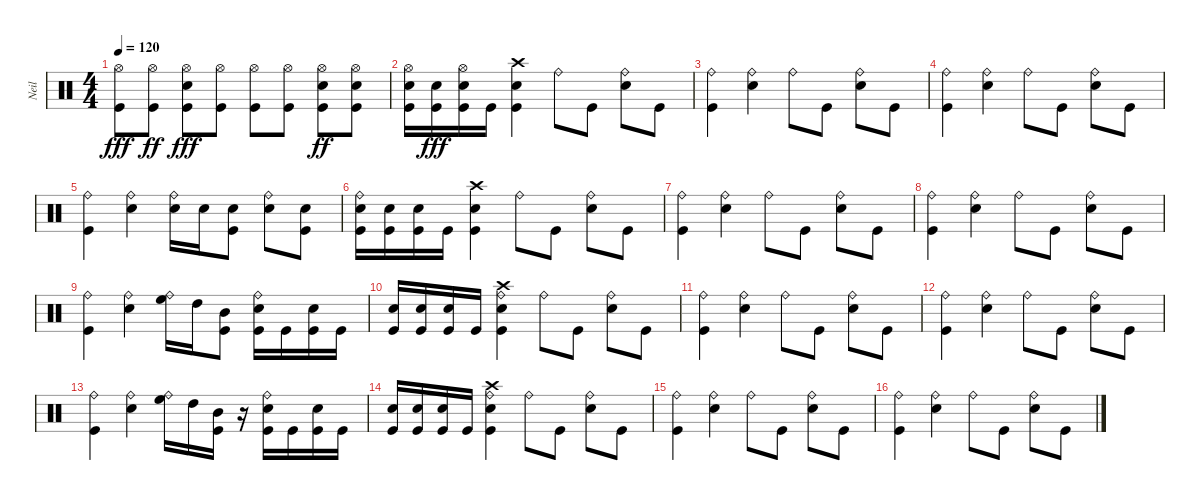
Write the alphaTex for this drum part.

\track ("Neil" "Neil") {instrument percussion}
\staff {score}
\articulation defaults
\ts (4 4)
\tempo 120
\clef neutral
\ks c
("Hi-Hat (open)" "Kick (hit)").8{dy fff} ("Kick (hit)" "Hi-Hat (open)").8{dy ff} ("Hi-Hat (open)" "Snare (hit) 2" "Kick (hit)").8{dy fff} ("Hi-Hat (open)" "Kick (hit)").8 ("Hi-Hat (open)" "Kick (hit)").8 ("Hi-Hat (open)" "Kick (hit)").8 ("Kick (hit)" "Snare (hit) 2" "Hi-Hat (open)").8{dy ff} ("Snare (hit) 2" "Kick (hit)" "Hi-Hat (open)").8 |
("Snare (hit) 2" "Kick (hit)" "Hi-Hat (open)").16 ("Kick (hit)" "Snare (hit) 2").16{dy fff} ("Hi-Hat (open)" "Kick (hit)" "Snare (hit) 2").16 "Kick (hit)".16 ("Crash high (hit)" "Snare (hit) 2" "Kick (hit)").4 "Ride (bell)".8 "Kick (hit)".8 ("Snare (hit) 2" "Ride (bell)").8 "Kick (hit)".8 |
("Kick (hit)" "Ride (bell)").4 ("Snare (hit) 2" "Ride (bell)").4 "Ride (bell)".8 "Kick (hit)".8 ("Ride (bell)" "Snare (hit) 2").8 "Kick (hit)".8 |
("Ride (bell)" "Kick (hit)").4 ("Snare (hit) 2" "Ride (bell)").4 "Ride (bell)".8 "Kick (hit)".8 ("Ride (bell)" "Snare (hit) 2").8 "Kick (hit)".8 |
("Kick (hit)" "Ride (bell)").4 ("Ride (bell)" "Snare (hit) 2").4 ("Ride (bell)" "Snare (hit) 2").16 "Snare (hit) 2".16 ("Snare (hit) 2" "Kick (hit)").8 ("Ride (bell)" "Snare (hit) 2").8 ("Kick (hit)" "Snare (hit) 2").8 |
("Kick (hit)" "Snare (hit) 2" "Ride (bell)").16 ("Snare (hit) 2" "Kick (hit)").16 ("Snare (hit) 2" "Kick (hit)").16 "Kick (hit)".16 ("Kick (hit)" "Snare (hit) 2" "Crash high (hit)").4 "Ride (bell)".8 "Kick (hit)".8 ("Snare (hit) 2" "Ride (bell)").8 "Kick (hit)".8 |
("Kick (hit)" "Ride (bell)").4 ("Snare (hit) 2" "Ride (bell)").4 "Ride (bell)".8 "Kick (hit)".8 ("Snare (hit) 2" "Ride (bell)").8 "Kick (hit)".8 |
("Kick (hit)" "Ride (bell)").4 ("Snare (hit) 2" "Ride (bell)").4 "Ride (bell)".8 "Kick (hit)".8 ("Ride (bell)" "Snare (hit) 2").8 "Kick (hit)".8 |
("Ride (bell)" "Kick (hit)").4 ("Ride (bell)" "Snare (hit) 2").4 ("Ride (bell)" "High Floor Tom (hit)").16 "High Tom (hit)".16 ("Mid Tom (hit)" "Kick (hit)").8 ("Kick (hit)" "Snare (hit) 2" "Ride (bell)").16 "Kick (hit)".16 ("Snare (hit) 2" "Kick (hit)").16 "Kick (hit)".16 |
("Kick (hit)" "Snare (hit) 2").16 ("Kick (hit)" "Snare (hit) 2").16 ("Snare (hit) 2" "Kick (hit)").16 "Kick (hit)".16 ("Crash high (hit)" "Kick (hit)" "Snare (hit) 2" "Ride (bell)").4 "Ride (bell)".8 "Kick (hit)".8 ("Ride (bell)" "Snare (hit) 2").8 "Kick (hit)".8 |
("Ride (bell)" "Kick (hit)").4 ("Snare (hit) 2" "Ride (bell)").4 "Ride (bell)".8 "Kick (hit)".8 ("Ride (bell)" "Snare (hit) 2").8 "Kick (hit)".8 |
("Ride (bell)" "Kick (hit)").4 ("Ride (bell)" "Snare (hit) 2").4 "Ride (bell)".8 "Kick (hit)".8 ("Ride (bell)" "Snare (hit) 2").8 "Kick (hit)".8 |
("Kick (hit)" "Ride (bell)").4 ("Snare (hit) 2" "Ride (bell)").4 ("Ride (bell)" "High Floor Tom (hit)").16 "High Tom (hit)".16 ("Mid Tom (hit)" "Kick (hit)").16 r.16 ("Ride (bell)" "Kick (hit)" "Snare (hit) 2").16 "Kick (hit)".16 ("Kick (hit)" "Snare (hit) 2").16 "Kick (hit)".16 |
("Snare (hit) 2" "Kick (hit)").16 ("Kick (hit)" "Snare (hit) 2").16 ("Kick (hit)" "Snare (hit) 2").16 "Kick (hit)".16 ("Snare (hit) 2" "Ride (bell)" "Kick (hit)" "Crash high (hit)").4 "Ride (bell)".8 "Kick (hit)".8 ("Ride (bell)" "Snare (hit) 2").8 "Kick (hit)".8 |
("Kick (hit)" "Ride (bell)").4 ("Ride (bell)" "Snare (hit) 2").4 "Ride (bell)".8 "Kick (hit)".8 ("Snare (hit) 2" "Ride (bell)").8 "Kick (hit)".8 |
("Ride (bell)" "Kick (hit)").4 ("Snare (hit) 2" "Ride (bell)").4 "Ride (bell)".8 "Kick (hit)".8 ("Ride (bell)" "Snare (hit) 2").8 "Kick (hit)".8
